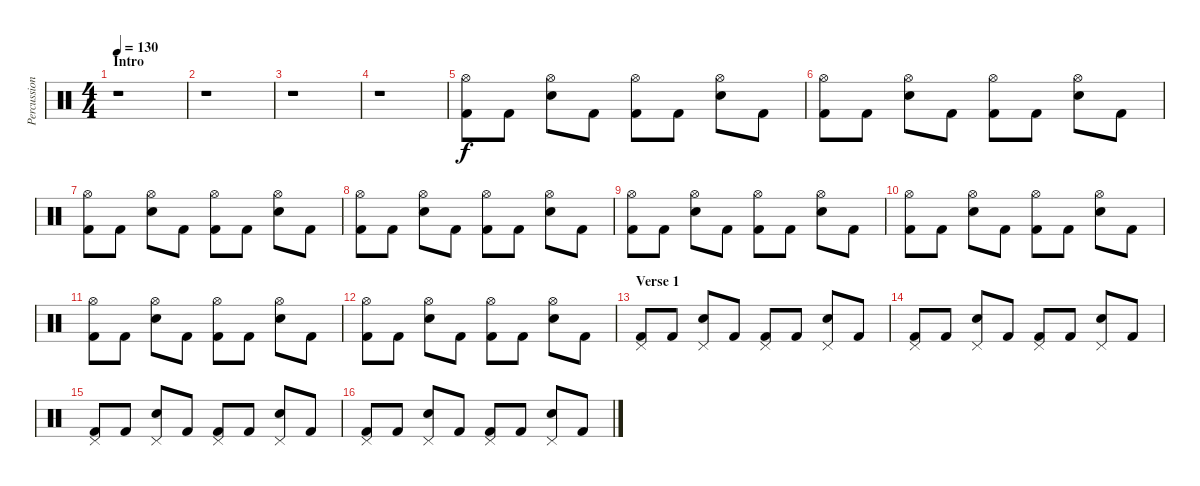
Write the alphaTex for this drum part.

\track ("Percussions" "Percussion") {instrument percussion}
\staff {score}
\articulation defaults
\ts (4 4)
\section ("" "Intro")
\tempo 130
\clef neutral
\ks c
r.1{dy f} |
r.1 |
r.1 |
r.1 |
("Hi-Hat (open)" "Kick (hit) 2").8 "Kick (hit) 2".8 ("Hi-Hat (open)" "Snare (hit) 2").8 "Kick (hit) 2".8 ("Hi-Hat (open)" "Kick (hit) 2").8 "Kick (hit) 2".8 ("Hi-Hat (open)" "Snare (hit) 2").8 "Kick (hit) 2".8 |
("Hi-Hat (open)" "Kick (hit) 2").8 "Kick (hit) 2".8 ("Hi-Hat (open)" "Snare (hit) 2").8 "Kick (hit) 2".8 ("Hi-Hat (open)" "Kick (hit) 2").8 "Kick (hit) 2".8 ("Hi-Hat (open)" "Snare (hit) 2").8 "Kick (hit) 2".8 |
("Hi-Hat (open)" "Kick (hit) 2").8 "Kick (hit) 2".8 ("Hi-Hat (open)" "Snare (hit) 2").8 "Kick (hit) 2".8 ("Hi-Hat (open)" "Kick (hit) 2").8 "Kick (hit) 2".8 ("Hi-Hat (open)" "Snare (hit) 2").8 "Kick (hit) 2".8 |
("Hi-Hat (open)" "Kick (hit) 2").8 "Kick (hit) 2".8 ("Hi-Hat (open)" "Snare (hit) 2").8 "Kick (hit) 2".8 ("Hi-Hat (open)" "Kick (hit) 2").8 "Kick (hit) 2".8 ("Hi-Hat (open)" "Snare (hit) 2").8 "Kick (hit) 2".8 |
("Hi-Hat (open)" "Kick (hit) 2").8 "Kick (hit) 2".8 ("Hi-Hat (open)" "Snare (hit) 2").8 "Kick (hit) 2".8 ("Hi-Hat (open)" "Kick (hit) 2").8 "Kick (hit) 2".8 ("Hi-Hat (open)" "Snare (hit) 2").8 "Kick (hit) 2".8 |
("Hi-Hat (open)" "Kick (hit) 2").8 "Kick (hit) 2".8 ("Hi-Hat (open)" "Snare (hit) 2").8 "Kick (hit) 2".8 ("Hi-Hat (open)" "Kick (hit) 2").8 "Kick (hit) 2".8 ("Hi-Hat (open)" "Snare (hit) 2").8 "Kick (hit) 2".8 |
("Hi-Hat (open)" "Kick (hit) 2").8 "Kick (hit) 2".8 ("Hi-Hat (open)" "Snare (hit) 2").8 "Kick (hit) 2".8 ("Hi-Hat (open)" "Kick (hit) 2").8 "Kick (hit) 2".8 ("Hi-Hat (open)" "Snare (hit) 2").8 "Kick (hit) 2".8 |
("Hi-Hat (open)" "Kick (hit) 2").8 "Kick (hit) 2".8 ("Hi-Hat (open)" "Snare (hit) 2").8 "Kick (hit) 2".8 ("Hi-Hat (open)" "Kick (hit) 2").8 "Kick (hit) 2".8 ("Hi-Hat (open)" "Snare (hit) 2").8 "Kick (hit) 2".8 |
\section ("" "Verse 1")
("Pedal Hi-Hat (hit)" "Kick (hit) 2").8 "Kick (hit) 2".8 ("Pedal Hi-Hat (hit)" "Snare (hit) 2").8 "Kick (hit) 2".8 ("Pedal Hi-Hat (hit)" "Kick (hit) 2").8 "Kick (hit) 2".8 ("Pedal Hi-Hat (hit)" "Snare (hit) 2").8 "Kick (hit) 2".8 |
("Pedal Hi-Hat (hit)" "Kick (hit) 2").8 "Kick (hit) 2".8 ("Pedal Hi-Hat (hit)" "Snare (hit) 2").8 "Kick (hit) 2".8 ("Pedal Hi-Hat (hit)" "Kick (hit) 2").8 "Kick (hit) 2".8 ("Pedal Hi-Hat (hit)" "Snare (hit) 2").8 "Kick (hit) 2".8 |
("Pedal Hi-Hat (hit)" "Kick (hit) 2").8 "Kick (hit) 2".8 ("Pedal Hi-Hat (hit)" "Snare (hit) 2").8 "Kick (hit) 2".8 ("Pedal Hi-Hat (hit)" "Kick (hit) 2").8 "Kick (hit) 2".8 ("Pedal Hi-Hat (hit)" "Snare (hit) 2").8 "Kick (hit) 2".8 |
("Pedal Hi-Hat (hit)" "Kick (hit) 2").8 "Kick (hit) 2".8 ("Pedal Hi-Hat (hit)" "Snare (hit) 2").8 "Kick (hit) 2".8 ("Pedal Hi-Hat (hit)" "Kick (hit) 2").8 "Kick (hit) 2".8 ("Pedal Hi-Hat (hit)" "Snare (hit) 2").8 "Kick (hit) 2".8
